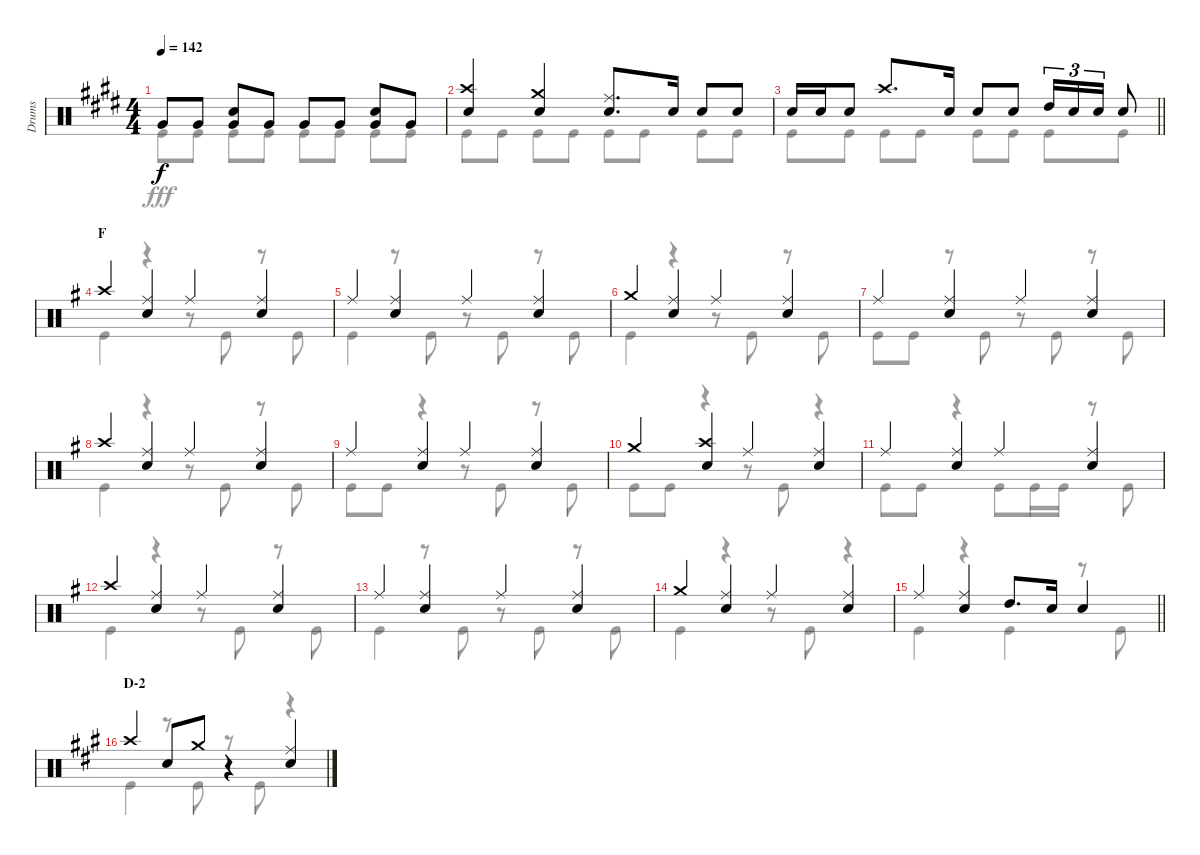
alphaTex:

\track ("Drums" "Drums") {instrument percussion}
\staff {score}
\articulation defaults
\voice
\ts (4 4)
\tempo 142
\clef neutral
\ks e "Very Low Tom (hit)".8{dy f} "Very Low Tom (hit)".8
("Snare (hit) 2" "Very Low Tom (hit)").8 "Very Low Tom (hit)".8 "Very Low Tom (hit)".8 "Very Low Tom (hit)".8 ("Snare (hit) 2" "Very Low Tom (hit)").8 "Very Low Tom (hit)".8 |
("Crash high (hit)" "Snare (hit) 2").4 ("Crash medium (hit)" "Snare (hit) 2").4 ("Ride (middle)" "Snare (hit) 2").8{d} "Snare (hit) 2".16 "Snare (hit) 2".8 "Snare (hit) 2".8 |
\barLineRight lightlight "Snare (hit) 2".16 "Snare (hit) 2".16 "Snare (hit) 2".8 "Crash high (hit)".8{d} "Snare (hit) 2".16 "Snare (hit) 2".8 "Snare (hit) 2".8 "High Tom (hit)".16{tu (3 2)} "Snare (hit) 2".16{tu (3 2)} "Snare (hit) 2".16{tu (3 2)} "Snare (hit) 2".8
|
\section ("" "F")
\ks g "Crash high (hit)".4
("Ride (middle)" "Snare (hit) 2").4 "Ride (middle)".4 ("Ride (middle)" "Snare (hit) 2").4 |
"Ride (middle)".4 ("Ride (middle)" "Snare (hit) 2").4 "Ride (middle)".4 ("Ride (middle)" "Snare (hit) 2").4 |
"Crash medium (hit)".4 ("Ride (middle)" "Snare (hit) 2").4 "Ride (middle)".4 ("Ride (middle)" "Snare (hit) 2").4 |
"Ride (middle)".4 ("Ride (middle)" "Snare (hit) 2").4 "Ride (middle)".4 ("Ride (middle)" "Snare (hit) 2").4 |
"Crash high (hit)".4 ("Ride (middle)" "Snare (hit) 2").4 "Ride (middle)".4 ("Ride (middle)" "Snare (hit) 2").4 |
"Ride (middle)".4 ("Ride (middle)" "Snare (hit) 2").4 "Ride (middle)".4 ("Ride (middle)" "Snare (hit) 2").4 |
"Crash medium (hit)".4 ("Crash high (hit)" "Snare (hit) 2").4 "Ride (middle)".4 ("Ride (middle)" "Snare (hit) 2").4 |
"Ride (middle)".4 ("Ride (middle)" "Snare (hit) 2").4 "Ride (middle)".4 ("Ride (middle)" "Snare (hit) 2").4 |
"Crash high (hit)".4 ("Ride (middle)" "Snare (hit) 2").4 "Ride (middle)".4 ("Ride (middle)" "Snare (hit) 2").4 |
"Ride (middle)".4 ("Ride (middle)" "Snare (hit) 2").4 "Ride (middle)".4 ("Ride (middle)" "Snare (hit) 2").4 |
"Crash medium (hit)".4 ("Ride (middle)" "Snare (hit) 2").4 "Ride (middle)".4 ("Ride (middle)" "Snare (hit) 2").4 |
\barLineRight lightlight "Ride (middle)".4
("Ride (middle)" "Snare (hit) 2").4 "High Tom (hit)".8{d} "Snare (hit) 2".16 "Snare (hit) 2".4 |
\section ("" "D-2")
\ks a "Crash high (hit)".4 "Snare (hit) 2".8 "Crash medium (hit)".8
r.4 ("Ride (middle)" "Snare (hit) 2").4
\voice
\clef neutral
\ottava regular
\simile none
\ks e "Kick (hit)".8{dy fff} "Kick (hit)".8 "Kick (hit)".8 "Kick (hit)".8 "Kick (hit)".8 "Kick (hit)".8 "Kick (hit)".8 "Kick (hit)".8
|
"Kick (hit)".8 "Kick (hit)".8 "Kick (hit)".8 "Kick (hit)".8 "Kick (hit)".8 "Kick (hit)".8 "Kick (hit)".8 "Kick (hit)".8 |
\barLineRight lightlight "Kick (hit)".8 "Kick (hit)".8 "Kick (hit)".8 "Kick (hit)".8 "Kick (hit)".8 "Kick (hit)".8 "Kick (hit)".8 "Kick (hit)".8
|
\ks g "Kick (hit)".4
r.4 r.8 "Kick (hit)".8 r.8 "Kick (hit)".8 |
"Kick (hit)".4 r.8 "Kick (hit)".8 r.8 "Kick (hit)".8 r.8 "Kick (hit)".8 |
"Kick (hit)".4 r.4 r.8 "Kick (hit)".8 r.8 "Kick (hit)".8 |
"Kick (hit)".8 "Kick (hit)".8 r.8 "Kick (hit)".8 r.8 "Kick (hit)".8 r.8 "Kick (hit)".8 |
"Kick (hit)".4 r.4 r.8 "Kick (hit)".8 r.8 "Kick (hit)".8 |
"Kick (hit)".8 "Kick (hit)".8 r.4 r.8 "Kick (hit)".8 r.8 "Kick (hit)".8 |
"Kick (hit)".8 "Kick (hit)".8 r.4 r.8 "Kick (hit)".8 r.4 |
"Kick (hit)".8 "Kick (hit)".8 r.4 "Kick (hit)".8 "Kick (hit)".16 "Kick (hit)".16 r.8 "Kick (hit)".8 |
"Kick (hit)".4 r.4 r.8 "Kick (hit)".8 r.8 "Kick (hit)".8 |
"Kick (hit)".4 r.8 "Kick (hit)".8 r.8 "Kick (hit)".8 r.8 "Kick (hit)".8 |
"Kick (hit)".4 r.4 r.8 "Kick (hit)".8 r.4 |
\barLineRight lightlight "Kick (hit)".4
r.4 "Kick (hit)".4 r.8 "Kick (hit)".8 |
\ks a "Kick (hit)".4
r.8 "Kick (hit)".8 r.8 "Kick (hit)".8 r.4
